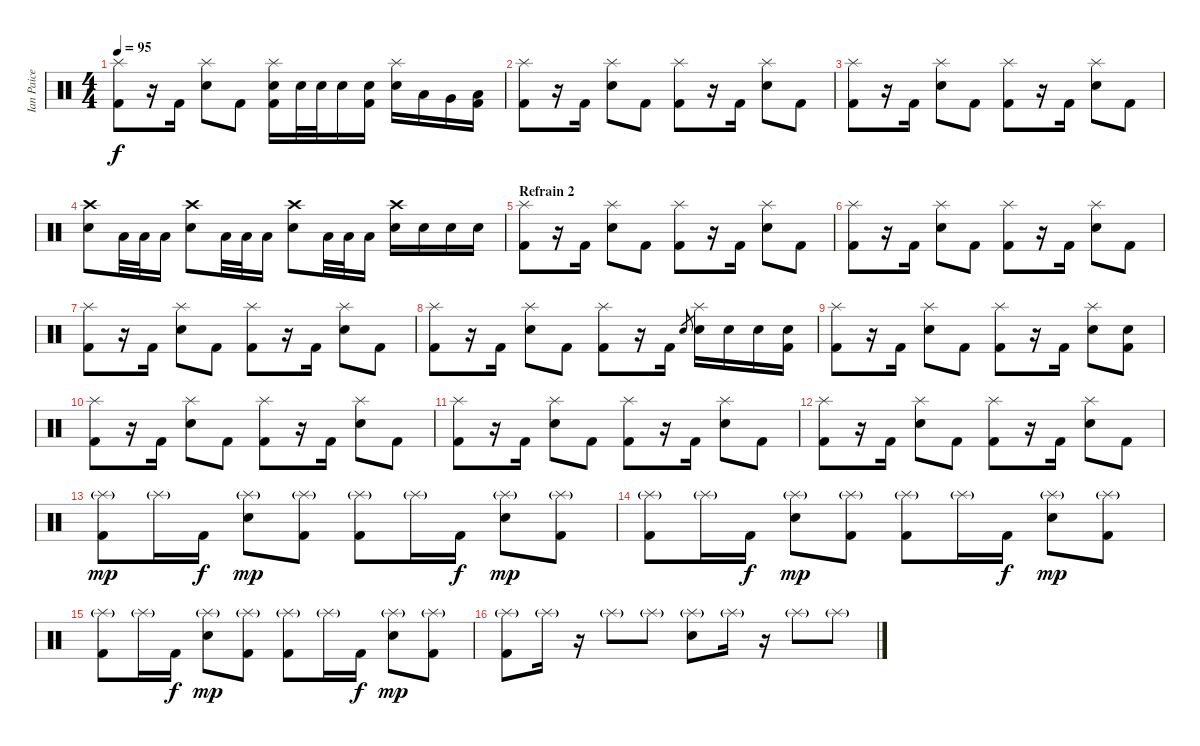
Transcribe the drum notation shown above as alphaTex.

\track ("Ian Paice" "Ian Paice") {instrument percussion}
\staff {score}
\articulation defaults
\ts (4 4)
\tempo 95
\clef neutral
\ks c
("Splash (hit)" "Kick (hit) 2").8{dy f} r.16 "Kick (hit) 2".16 ("Splash (hit)" "Snare (hit) 2").8 "Kick (hit) 2".8 ("Splash (hit)" "Snare (hit) 2" "Kick (hit) 2").16 "Snare (hit) 2".32 "Snare (hit) 2".32 "Snare (hit) 2".16 ("Snare (hit) 2" "Kick (hit) 2").16 ("Splash (hit)" "Snare (hit) 2").16 "Low Floor Tom (hit)".16 "Very Low Tom (hit)".16 ("Low Tom (hit)" "Kick (hit) 2").16 |
("Splash (hit)" "Kick (hit) 2").8 r.16 "Kick (hit) 2".16 ("Splash (hit)" "Snare (hit) 2").8 "Kick (hit) 2".8 ("Splash (hit)" "Kick (hit) 2").8 r.16 "Kick (hit) 2".16 ("Splash (hit)" "Snare (hit) 2").8 "Kick (hit) 2".8 |
("Splash (hit)" "Kick (hit) 2").8 r.16 "Kick (hit) 2".16 ("Splash (hit)" "Snare (hit) 2").8 "Kick (hit) 2".8 ("Splash (hit)" "Kick (hit) 2").8 r.16 "Kick (hit) 2".16 ("Splash (hit)" "Snare (hit) 2").8 "Kick (hit) 2".8 |
("Crash high (hit)" "Snare (hit) 2").8 "Low Floor Tom (hit)".32 "Low Floor Tom (hit)".32 "Low Floor Tom (hit)".16 ("Crash high (hit)" "Snare (hit) 2").8 "Low Floor Tom (hit)".32 "Low Floor Tom (hit)".32 "Low Floor Tom (hit)".16 ("Crash high (hit)" "Snare (hit) 2").8 "Low Floor Tom (hit)".32 "Low Floor Tom (hit)".32 "Low Floor Tom (hit)".16 ("Crash high (hit)" "Snare (hit) 2").16 "Snare (hit) 2".16 "Snare (hit) 2".16 "Snare (hit) 2".16 |
\section ("" "Refrain 2")
("Splash (hit)" "Kick (hit) 2").8 r.16 "Kick (hit) 2".16 ("Splash (hit)" "Snare (hit) 2").8 "Kick (hit) 2".8 ("Splash (hit)" "Kick (hit) 2").8 r.16 "Kick (hit) 2".16 ("Splash (hit)" "Snare (hit) 2").8 "Kick (hit) 2".8 |
("Splash (hit)" "Kick (hit) 2").8 r.16 "Kick (hit) 2".16 ("Splash (hit)" "Snare (hit) 2").8 "Kick (hit) 2".8 ("Splash (hit)" "Kick (hit) 2").8 r.16 "Kick (hit) 2".16 ("Splash (hit)" "Snare (hit) 2").8 "Kick (hit) 2".8 |
("Splash (hit)" "Kick (hit) 2").8 r.16 "Kick (hit) 2".16 ("Splash (hit)" "Snare (hit) 2").8 "Kick (hit) 2".8 ("Splash (hit)" "Kick (hit) 2").8 r.16 "Kick (hit) 2".16 ("Splash (hit)" "Snare (hit) 2").8 "Kick (hit) 2".8 |
("Splash (hit)" "Kick (hit) 2").8 r.16 "Kick (hit) 2".16 ("Splash (hit)" "Snare (hit) 2").8 "Kick (hit) 2".8 ("Splash (hit)" "Kick (hit) 2").8 r.16 "Kick (hit) 2".16 "Snare (hit) 2".8{gr} ("Splash (hit)" "Snare (hit) 2").16 "Snare (hit) 2".16 "Snare (hit) 2".16 ("Snare (hit) 2" "Kick (hit) 2").16 |
("Splash (hit)" "Kick (hit) 2").8 r.16 "Kick (hit) 2".16 ("Splash (hit)" "Snare (hit) 2").8 "Kick (hit) 2".8 ("Splash (hit)" "Kick (hit) 2").8 r.16 "Kick (hit) 2".16 ("Splash (hit)" "Snare (hit) 2").8 ("Snare (hit) 2" "Kick (hit) 2").8 |
("Splash (hit)" "Kick (hit) 2").8 r.16 "Kick (hit) 2".16 ("Splash (hit)" "Snare (hit) 2").8 "Kick (hit) 2".8 ("Splash (hit)" "Kick (hit) 2").8 r.16 "Kick (hit) 2".16 ("Splash (hit)" "Snare (hit) 2").8 "Kick (hit) 2".8 |
("Splash (hit)" "Kick (hit) 2").8 r.16 "Kick (hit) 2".16 ("Splash (hit)" "Snare (hit) 2").8 "Kick (hit) 2".8 ("Splash (hit)" "Kick (hit) 2").8 r.16 "Kick (hit) 2".16 ("Splash (hit)" "Snare (hit) 2").8 "Kick (hit) 2".8 |
("Splash (hit)" "Kick (hit) 2").8 r.16 "Kick (hit) 2".16 ("Splash (hit)" "Snare (hit) 2").8 "Kick (hit) 2".8 ("Splash (hit)" "Kick (hit) 2").8 r.16 "Kick (hit) 2".16 ("Splash (hit)" "Snare (hit) 2").8 "Kick (hit) 2".8 |
("Splash (hit)"{g} "Kick (hit) 2").8{dy mp} "Splash (hit)"{g}.16 "Kick (hit) 2".16{dy f} ("Splash (hit)"{g} "Snare (hit) 2").8{dy mp} ("Splash (hit)"{g} "Kick (hit) 2").8 ("Splash (hit)"{g} "Kick (hit) 2").8 "Splash (hit)"{g}.16 "Kick (hit) 2".16{dy f} ("Splash (hit)"{g} "Snare (hit) 2").8{dy mp} ("Splash (hit)"{g} "Kick (hit) 2").8 |
("Splash (hit)"{g} "Kick (hit) 2").8 "Splash (hit)"{g}.16 "Kick (hit) 2".16{dy f} ("Splash (hit)"{g} "Snare (hit) 2").8{dy mp} ("Splash (hit)"{g} "Kick (hit) 2").8 ("Splash (hit)"{g} "Kick (hit) 2").8 "Splash (hit)"{g}.16 "Kick (hit) 2".16{dy f} ("Splash (hit)"{g} "Snare (hit) 2").8{dy mp} ("Splash (hit)"{g} "Kick (hit) 2").8 |
("Splash (hit)"{g} "Kick (hit) 2").8 "Splash (hit)"{g}.16 "Kick (hit) 2".16{dy f} ("Splash (hit)"{g} "Snare (hit) 2").8{dy mp} ("Splash (hit)"{g} "Kick (hit) 2").8 ("Splash (hit)"{g} "Kick (hit) 2").8 "Splash (hit)"{g}.16 "Kick (hit) 2".16{dy f} ("Splash (hit)"{g} "Snare (hit) 2").8{dy mp} ("Splash (hit)"{g} "Kick (hit) 2").8 |
("Splash (hit)"{g} "Kick (hit) 2").8 "Splash (hit)"{g}.16 r.16 "Splash (hit)"{g}.8 "Splash (hit)"{g}.8 ("Splash (hit)"{g} "Snare (hit) 2").8 "Splash (hit)"{g}.16 r.16 "Splash (hit)"{g}.8 "Splash (hit)"{g}.8
